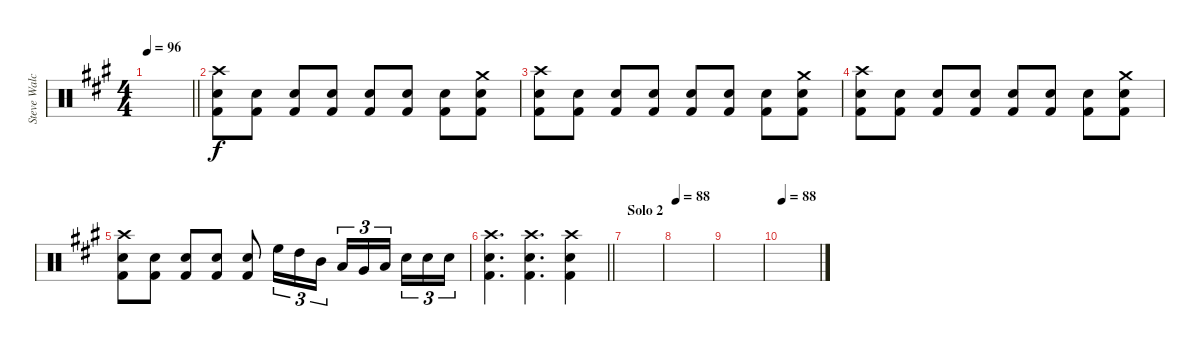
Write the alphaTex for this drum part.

\track ("Steve Walchoz" "Steve Walc") {instrument percussion}
\staff {score}
\articulation defaults
\ts (4 4)
\tempo 96
\clef neutral
\barLineRight lightlight
\ks a
|
("Crash high (hit)" "Snare (hit) 2" "Kick (hit) 2").8 ("Snare (hit) 2" "Kick (hit) 2").8 ("Snare (hit) 2" "Kick (hit) 2").8 ("Snare (hit) 2" "Kick (hit) 2").8 ("Snare (hit) 2" "Kick (hit) 2").8 ("Snare (hit) 2" "Kick (hit) 2").8 ("Snare (hit) 2" "Kick (hit) 2").8 ("Crash medium (hit)" "Snare (hit) 2" "Kick (hit) 2").8 |
("Crash high (hit)" "Snare (hit) 2" "Kick (hit) 2").8 ("Snare (hit) 2" "Kick (hit) 2").8 ("Snare (hit) 2" "Kick (hit) 2").8 ("Snare (hit) 2" "Kick (hit) 2").8 ("Snare (hit) 2" "Kick (hit) 2").8 ("Snare (hit) 2" "Kick (hit) 2").8 ("Snare (hit) 2" "Kick (hit) 2").8 ("Crash medium (hit)" "Snare (hit) 2" "Kick (hit) 2").8 |
("Crash high (hit)" "Snare (hit) 2" "Kick (hit) 2").8 ("Snare (hit) 2" "Kick (hit) 2").8 ("Snare (hit) 2" "Kick (hit) 2").8 ("Snare (hit) 2" "Kick (hit) 2").8 ("Snare (hit) 2" "Kick (hit) 2").8 ("Snare (hit) 2" "Kick (hit) 2").8 ("Snare (hit) 2" "Kick (hit) 2").8 ("Crash medium (hit)" "Snare (hit) 2" "Kick (hit) 2").8 |
("Crash high (hit)" "Snare (hit) 2" "Kick (hit) 2").8 ("Snare (hit) 2" "Kick (hit) 2").8 ("Snare (hit) 2" "Kick (hit) 2").8 ("Snare (hit) 2" "Kick (hit) 2").8 ("Snare (hit) 2" "Kick (hit) 2").8 "High Floor Tom (hit)".16{tu (3 2)} "High Tom (hit)".16{tu (3 2)} "Mid Tom (hit)".16{tu (3 2)} "Low Tom (hit)".16{tu (3 2)} "Very Low Tom (hit)".16{tu (3 2)} "Low Floor Tom (hit)".16{tu (3 2) beam splitsecondary} "Snare (hit) 2".16{tu (3 2)} "Snare (hit) 2".16{tu (3 2)} "Snare (hit) 2".16{tu (3 2)} |
\barLineRight lightlight
("Crash high (hit)" "Snare (hit) 2" "Kick (hit) 2").4{d} ("Crash high (hit)" "Snare (hit) 2" "Kick (hit) 2").4{d} ("Crash high (hit)" "Snare (hit) 2" "Kick (hit) 2").4 |
\section ("" "Solo 2")
|
\tempo 88
|
|
\tempo 88
